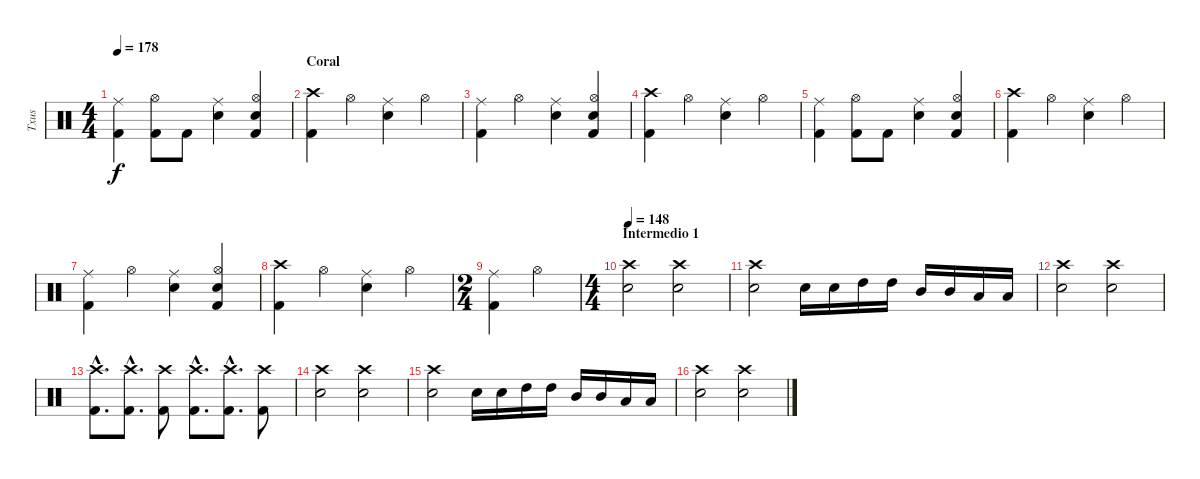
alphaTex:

\track ("Txus" "Txus") {instrument percussion}
\staff {score}
\articulation defaults
\ts (4 4)
\tempo 178
\clef neutral
\ks c
("Kick (hit) 2" "Ride (middle)").4{dy f} ("Kick (hit) 2" "Hi-Hat (open)").8 "Kick (hit) 2".8 ("Ride (middle)" "Electric Snare (hit)").4 ("Kick (hit) 2" "Electric Snare (hit)" "Hi-Hat (open)").4 |
\section ("" "Coral")
("Kick (hit) 2" "Crash high (hit)").4 "Hi-Hat (open)".4 ("Ride (middle)" "Electric Snare (hit)").4 "Hi-Hat (open)".4 |
("Kick (hit) 2" "Ride (middle)").4 "Hi-Hat (open)".4 ("Ride (middle)" "Electric Snare (hit)").4 ("Kick (hit) 2" "Hi-Hat (open)" "Electric Snare (hit)").4 |
("Kick (hit) 2" "Crash high (hit)").4 "Hi-Hat (open)".4 ("Ride (middle)" "Electric Snare (hit)").4 "Hi-Hat (open)".4 |
("Kick (hit) 2" "Ride (middle)").4 ("Kick (hit) 2" "Hi-Hat (open)").8 "Kick (hit) 2".8 ("Ride (middle)" "Electric Snare (hit)").4 ("Kick (hit) 2" "Electric Snare (hit)" "Hi-Hat (open)").4 |
("Kick (hit) 2" "Crash high (hit)").4 "Hi-Hat (open)".4 ("Ride (middle)" "Electric Snare (hit)").4 "Hi-Hat (open)".4 |
("Kick (hit) 2" "Ride (middle)").4 "Hi-Hat (open)".4 ("Ride (middle)" "Electric Snare (hit)").4 ("Kick (hit) 2" "Hi-Hat (open)" "Electric Snare (hit)").4 |
("Kick (hit) 2" "Crash high (hit)").4 "Hi-Hat (open)".4 ("Ride (middle)" "Electric Snare (hit)").4 "Hi-Hat (open)".4 |
\ts (2 4)
("Kick (hit) 2" "Ride (middle)").4 "Hi-Hat (open)".4 |
\ts (4 4)
\section ("" "Intermedio 1")
\tempo 148
("Electric Snare (hit)" "Crash high (hit)").2 ("Electric Snare (hit)" "Crash high (hit)").2 |
("Electric Snare (hit)" "Crash high (hit)").2 "Electric Snare (hit)".16 "Electric Snare (hit)".16 "High Tom (hit)".16 "High Tom (hit)".16 "Mid Tom (hit)".16 "Mid Tom (hit)".16 "Low Tom (hit)".16 "Low Tom (hit)".16 |
("Electric Snare (hit)" "Crash high (hit)").2 ("Electric Snare (hit)" "Crash high (hit)").2 |
("Kick (hit) 2"{hac} "Crash high (hit)"{hac}).8{d} ("Kick (hit) 2"{hac} "Crash high (hit)"{hac}).8{d} ("Kick (hit) 2" "Crash high (hit)").8 ("Kick (hit) 2"{hac} "Crash high (hit)"{hac}).8{d} ("Kick (hit) 2"{hac} "Crash high (hit)"{hac}).8{d} ("Kick (hit) 2" "Crash high (hit)").8 |
("Electric Snare (hit)" "Crash high (hit)").2 ("Electric Snare (hit)" "Crash high (hit)").2 |
("Electric Snare (hit)" "Crash high (hit)").2 "Electric Snare (hit)".16 "Electric Snare (hit)".16 "High Tom (hit)".16 "High Tom (hit)".16 "Mid Tom (hit)".16 "Mid Tom (hit)".16 "Low Tom (hit)".16 "Low Tom (hit)".16 |
("Electric Snare (hit)" "Crash high (hit)").2 ("Electric Snare (hit)" "Crash high (hit)").2
